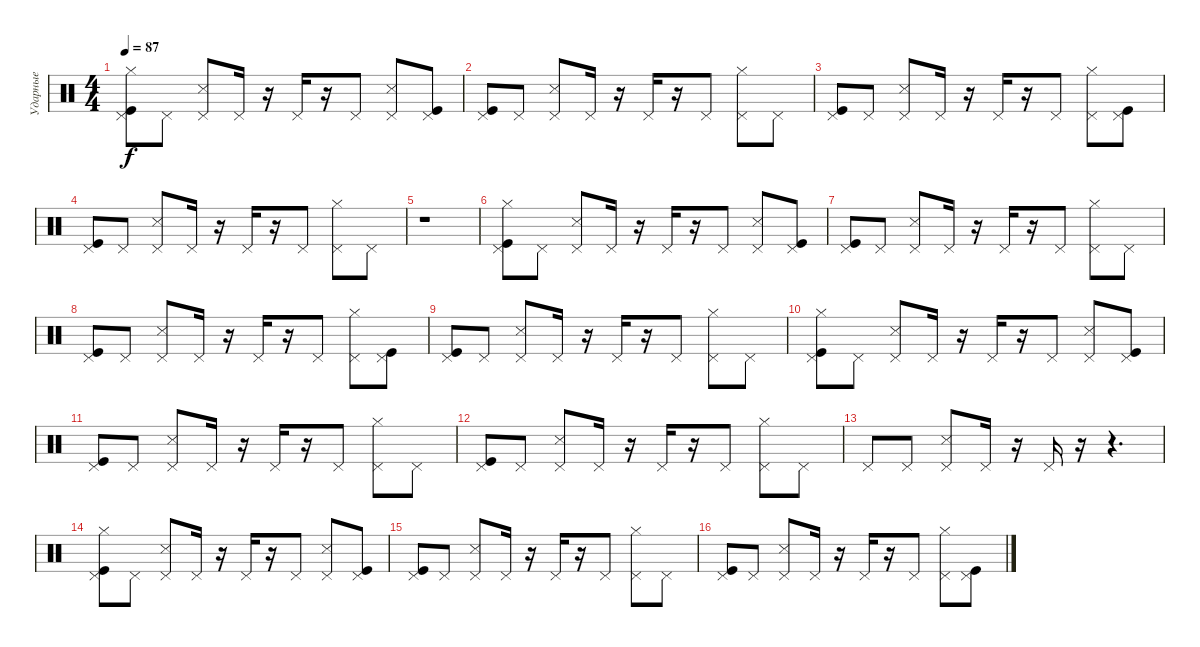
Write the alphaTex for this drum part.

\track ("Ударные" "Ударные") {instrument percussion}
\staff {score}
\articulation defaults
\ts (4 4)
\tempo 87
\clef neutral
\ks c
("Hi-Hat (closed)" "Kick (hit)" "Pedal Hi-Hat (hit)").8{dy f} "Pedal Hi-Hat (hit)".8 ("Snare (side stick) 3" "Pedal Hi-Hat (hit)").8 "Pedal Hi-Hat (hit)".16 r.16 "Pedal Hi-Hat (hit)".16 r.16 "Pedal Hi-Hat (hit)".8 ("Snare (side stick) 3" "Pedal Hi-Hat (hit)").8 ("Kick (hit)" "Pedal Hi-Hat (hit)").8 |
("Kick (hit)" "Pedal Hi-Hat (hit)").8 "Pedal Hi-Hat (hit)".8 ("Snare (side stick) 3" "Pedal Hi-Hat (hit)").8 "Pedal Hi-Hat (hit)".16 r.16 "Pedal Hi-Hat (hit)".16 r.16 "Pedal Hi-Hat (hit)".8 ("Pedal Hi-Hat (hit)" "Hi-Hat (closed)").8 "Pedal Hi-Hat (hit)".8 |
("Kick (hit)" "Pedal Hi-Hat (hit)").8 "Pedal Hi-Hat (hit)".8 ("Snare (side stick) 3" "Pedal Hi-Hat (hit)").8 "Pedal Hi-Hat (hit)".16 r.16 "Pedal Hi-Hat (hit)".16 r.16 "Pedal Hi-Hat (hit)".8 ("Pedal Hi-Hat (hit)" "Hi-Hat (closed)").8 ("Pedal Hi-Hat (hit)" "Kick (hit)").8 |
("Kick (hit)" "Pedal Hi-Hat (hit)").8 "Pedal Hi-Hat (hit)".8 ("Snare (side stick) 3" "Pedal Hi-Hat (hit)").8 "Pedal Hi-Hat (hit)".16 r.16 "Pedal Hi-Hat (hit)".16 r.16 "Pedal Hi-Hat (hit)".8 ("Pedal Hi-Hat (hit)" "Hi-Hat (closed)").8 "Pedal Hi-Hat (hit)".8 |
r.1 |
("Hi-Hat (closed)" "Kick (hit)" "Pedal Hi-Hat (hit)").8 "Pedal Hi-Hat (hit)".8 ("Snare (side stick) 3" "Pedal Hi-Hat (hit)").8 "Pedal Hi-Hat (hit)".16 r.16 "Pedal Hi-Hat (hit)".16 r.16 "Pedal Hi-Hat (hit)".8 ("Snare (side stick) 3" "Pedal Hi-Hat (hit)").8 ("Kick (hit)" "Pedal Hi-Hat (hit)").8 |
("Kick (hit)" "Pedal Hi-Hat (hit)").8 "Pedal Hi-Hat (hit)".8 ("Snare (side stick) 3" "Pedal Hi-Hat (hit)").8 "Pedal Hi-Hat (hit)".16 r.16 "Pedal Hi-Hat (hit)".16 r.16 "Pedal Hi-Hat (hit)".8 ("Pedal Hi-Hat (hit)" "Hi-Hat (closed)").8 "Pedal Hi-Hat (hit)".8 |
("Kick (hit)" "Pedal Hi-Hat (hit)").8 "Pedal Hi-Hat (hit)".8 ("Snare (side stick) 3" "Pedal Hi-Hat (hit)").8 "Pedal Hi-Hat (hit)".16 r.16 "Pedal Hi-Hat (hit)".16 r.16 "Pedal Hi-Hat (hit)".8 ("Pedal Hi-Hat (hit)" "Hi-Hat (closed)").8 ("Pedal Hi-Hat (hit)" "Kick (hit)").8 |
("Kick (hit)" "Pedal Hi-Hat (hit)").8 "Pedal Hi-Hat (hit)".8 ("Snare (side stick) 3" "Pedal Hi-Hat (hit)").8 "Pedal Hi-Hat (hit)".16 r.16 "Pedal Hi-Hat (hit)".16 r.16 "Pedal Hi-Hat (hit)".8 ("Pedal Hi-Hat (hit)" "Hi-Hat (closed)").8 "Pedal Hi-Hat (hit)".8 |
("Hi-Hat (closed)" "Kick (hit)" "Pedal Hi-Hat (hit)").8 "Pedal Hi-Hat (hit)".8 ("Snare (side stick) 3" "Pedal Hi-Hat (hit)").8 "Pedal Hi-Hat (hit)".16 r.16 "Pedal Hi-Hat (hit)".16 r.16 "Pedal Hi-Hat (hit)".8 ("Snare (side stick) 3" "Pedal Hi-Hat (hit)").8 ("Kick (hit)" "Pedal Hi-Hat (hit)").8 |
("Kick (hit)" "Pedal Hi-Hat (hit)").8 "Pedal Hi-Hat (hit)".8 ("Snare (side stick) 3" "Pedal Hi-Hat (hit)").8 "Pedal Hi-Hat (hit)".16 r.16 "Pedal Hi-Hat (hit)".16 r.16 "Pedal Hi-Hat (hit)".8 ("Pedal Hi-Hat (hit)" "Hi-Hat (closed)").8 "Pedal Hi-Hat (hit)".8 |
("Kick (hit)" "Pedal Hi-Hat (hit)").8 "Pedal Hi-Hat (hit)".8 ("Snare (side stick) 3" "Pedal Hi-Hat (hit)").8 "Pedal Hi-Hat (hit)".16 r.16 "Pedal Hi-Hat (hit)".16 r.16 "Pedal Hi-Hat (hit)".8 ("Pedal Hi-Hat (hit)" "Hi-Hat (closed)").8 "Pedal Hi-Hat (hit)".8 |
"Pedal Hi-Hat (hit)".8 "Pedal Hi-Hat (hit)".8 ("Snare (side stick) 3" "Pedal Hi-Hat (hit)").8 "Pedal Hi-Hat (hit)".16 r.16 "Pedal Hi-Hat (hit)".16 r.16 r.4{d} |
("Hi-Hat (closed)" "Kick (hit)" "Pedal Hi-Hat (hit)").8 "Pedal Hi-Hat (hit)".8 ("Snare (side stick) 3" "Pedal Hi-Hat (hit)").8 "Pedal Hi-Hat (hit)".16 r.16 "Pedal Hi-Hat (hit)".16 r.16 "Pedal Hi-Hat (hit)".8 ("Snare (side stick) 3" "Pedal Hi-Hat (hit)").8 ("Kick (hit)" "Pedal Hi-Hat (hit)").8 |
("Kick (hit)" "Pedal Hi-Hat (hit)").8 "Pedal Hi-Hat (hit)".8 ("Snare (side stick) 3" "Pedal Hi-Hat (hit)").8 "Pedal Hi-Hat (hit)".16 r.16 "Pedal Hi-Hat (hit)".16 r.16 "Pedal Hi-Hat (hit)".8 ("Pedal Hi-Hat (hit)" "Hi-Hat (closed)").8 "Pedal Hi-Hat (hit)".8 |
("Kick (hit)" "Pedal Hi-Hat (hit)").8 "Pedal Hi-Hat (hit)".8 ("Snare (side stick) 3" "Pedal Hi-Hat (hit)").8 "Pedal Hi-Hat (hit)".16 r.16 "Pedal Hi-Hat (hit)".16 r.16 "Pedal Hi-Hat (hit)".8 ("Pedal Hi-Hat (hit)" "Hi-Hat (closed)").8 ("Pedal Hi-Hat (hit)" "Kick (hit)").8
